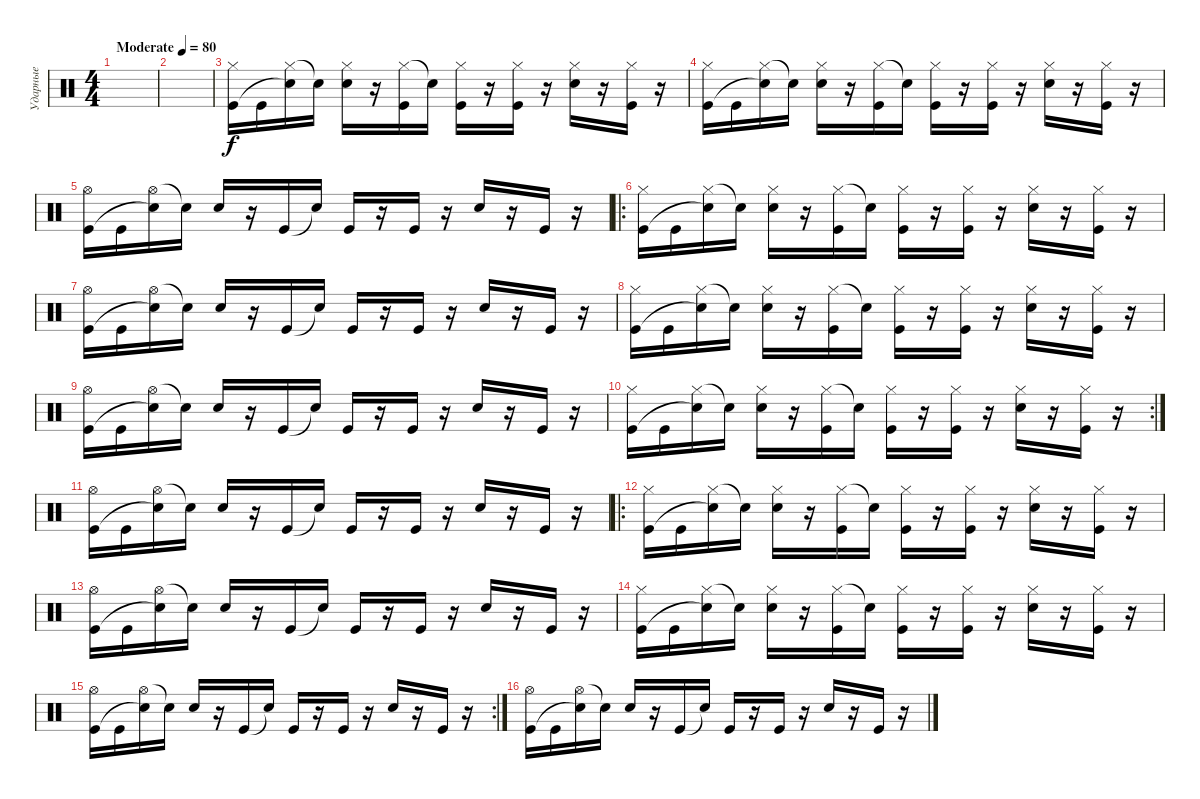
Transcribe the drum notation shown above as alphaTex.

\track ("Ударные" "Ударные") {instrument percussion}
\staff {score}
\articulation defaults
\ts (4 4)
\tempo (80 "Moderate")
\clef neutral
\ks c
|
|
("Hi-Hat (closed)" "Kick (hit)").16 "Kick (hit)".16 ("Hi-Hat (closed)" "Snare (hit)"{t}).16 "Electric Snare (hit)"{t}.16 ("Hi-Hat (closed)" "Electric Snare (hit)").16 r.16 ("Hi-Hat (closed)" "Kick (hit)").16 "Snare (hit)"{t}.16 ("Hi-Hat (closed)" "Kick (hit)").16 r.16 ("Hi-Hat (closed)" "Kick (hit)").16 r.16 ("Hi-Hat (closed)" "Electric Snare (hit)").16 r.16 ("Hi-Hat (closed)" "Kick (hit)").16 r.16 |
("Hi-Hat (closed)" "Kick (hit)").16 "Kick (hit)".16 ("Hi-Hat (closed)" "Snare (hit)"{t}).16 "Electric Snare (hit)"{t}.16 ("Hi-Hat (closed)" "Electric Snare (hit)").16 r.16 ("Hi-Hat (closed)" "Kick (hit)").16 "Snare (hit)"{t}.16 ("Hi-Hat (closed)" "Kick (hit)").16 r.16 ("Hi-Hat (closed)" "Kick (hit)").16 r.16 ("Hi-Hat (closed)" "Electric Snare (hit)").16 r.16 ("Hi-Hat (closed)" "Kick (hit)").16 r.16 |
("Hi-Hat (open)" "Kick (hit)").16 "Kick (hit)".16 ("Hi-Hat (open)" "Snare (hit)"{t}).16 "Electric Snare (hit)"{t}.16 "Electric Snare (hit)".16 r.16 "Kick (hit)".16 "Snare (hit)"{t}.16 "Kick (hit)".16 r.16 "Kick (hit)".16 r.16 "Electric Snare (hit)".16 r.16 "Kick (hit)".16 r.16 |
\ro
("Hi-Hat (closed)" "Kick (hit)").16 "Kick (hit)".16 ("Hi-Hat (closed)" "Snare (hit)"{t}).16 "Electric Snare (hit)"{t}.16 ("Hi-Hat (closed)" "Electric Snare (hit)").16 r.16 ("Hi-Hat (closed)" "Kick (hit)").16 "Snare (hit)"{t}.16 ("Hi-Hat (closed)" "Kick (hit)").16 r.16 ("Hi-Hat (closed)" "Kick (hit)").16 r.16 ("Hi-Hat (closed)" "Electric Snare (hit)").16 r.16 ("Hi-Hat (closed)" "Kick (hit)").16 r.16 |
("Hi-Hat (open)" "Kick (hit)").16 "Kick (hit)".16 ("Hi-Hat (open)" "Snare (hit)"{t}).16 "Electric Snare (hit)"{t}.16 "Electric Snare (hit)".16 r.16 "Kick (hit)".16 "Snare (hit)"{t}.16 "Kick (hit)".16 r.16 "Kick (hit)".16 r.16 "Electric Snare (hit)".16 r.16 "Kick (hit)".16 r.16 |
("Hi-Hat (closed)" "Kick (hit)").16 "Kick (hit)".16 ("Hi-Hat (closed)" "Snare (hit)"{t}).16 "Electric Snare (hit)"{t}.16 ("Hi-Hat (closed)" "Electric Snare (hit)").16 r.16 ("Hi-Hat (closed)" "Kick (hit)").16 "Snare (hit)"{t}.16 ("Hi-Hat (closed)" "Kick (hit)").16 r.16 ("Hi-Hat (closed)" "Kick (hit)").16 r.16 ("Hi-Hat (closed)" "Electric Snare (hit)").16 r.16 ("Hi-Hat (closed)" "Kick (hit)").16 r.16 |
("Hi-Hat (open)" "Kick (hit)").16 "Kick (hit)".16 ("Hi-Hat (open)" "Snare (hit)"{t}).16 "Electric Snare (hit)"{t}.16 "Electric Snare (hit)".16 r.16 "Kick (hit)".16 "Snare (hit)"{t}.16 "Kick (hit)".16 r.16 "Kick (hit)".16 r.16 "Electric Snare (hit)".16 r.16 "Kick (hit)".16 r.16 |
\rc 2
("Hi-Hat (closed)" "Kick (hit)").16 "Kick (hit)".16 ("Hi-Hat (closed)" "Snare (hit)"{t}).16 "Electric Snare (hit)"{t}.16 ("Hi-Hat (closed)" "Electric Snare (hit)").16 r.16 ("Hi-Hat (closed)" "Kick (hit)").16 "Snare (hit)"{t}.16 ("Hi-Hat (closed)" "Kick (hit)").16 r.16 ("Hi-Hat (closed)" "Kick (hit)").16 r.16 ("Hi-Hat (closed)" "Electric Snare (hit)").16 r.16 ("Hi-Hat (closed)" "Kick (hit)").16 r.16 |
("Hi-Hat (open)" "Kick (hit)").16 "Kick (hit)".16 ("Hi-Hat (open)" "Snare (hit)"{t}).16 "Electric Snare (hit)"{t}.16 "Electric Snare (hit)".16 r.16 "Kick (hit)".16 "Snare (hit)"{t}.16 "Kick (hit)".16 r.16 "Kick (hit)".16 r.16 "Electric Snare (hit)".16 r.16 "Kick (hit)".16 r.16 |
\ro
("Hi-Hat (closed)" "Kick (hit)").16 "Kick (hit)".16 ("Hi-Hat (closed)" "Snare (hit)"{t}).16 "Electric Snare (hit)"{t}.16 ("Hi-Hat (closed)" "Electric Snare (hit)").16 r.16 ("Hi-Hat (closed)" "Kick (hit)").16 "Snare (hit)"{t}.16 ("Hi-Hat (closed)" "Kick (hit)").16 r.16 ("Hi-Hat (closed)" "Kick (hit)").16 r.16 ("Hi-Hat (closed)" "Electric Snare (hit)").16 r.16 ("Hi-Hat (closed)" "Kick (hit)").16 r.16 |
("Hi-Hat (open)" "Kick (hit)").16 "Kick (hit)".16 ("Hi-Hat (open)" "Snare (hit)"{t}).16 "Electric Snare (hit)"{t}.16 "Electric Snare (hit)".16 r.16 "Kick (hit)".16 "Snare (hit)"{t}.16 "Kick (hit)".16 r.16 "Kick (hit)".16 r.16 "Electric Snare (hit)".16 r.16 "Kick (hit)".16 r.16 |
("Hi-Hat (closed)" "Kick (hit)").16 "Kick (hit)".16 ("Hi-Hat (closed)" "Snare (hit)"{t}).16 "Electric Snare (hit)"{t}.16 ("Hi-Hat (closed)" "Electric Snare (hit)").16 r.16 ("Hi-Hat (closed)" "Kick (hit)").16 "Snare (hit)"{t}.16 ("Hi-Hat (closed)" "Kick (hit)").16 r.16 ("Hi-Hat (closed)" "Kick (hit)").16 r.16 ("Hi-Hat (closed)" "Electric Snare (hit)").16 r.16 ("Hi-Hat (closed)" "Kick (hit)").16 r.16 |
\rc 2
("Hi-Hat (open)" "Kick (hit)").16 "Kick (hit)".16 ("Hi-Hat (open)" "Snare (hit)"{t}).16 "Electric Snare (hit)"{t}.16 "Electric Snare (hit)".16 r.16 "Kick (hit)".16 "Snare (hit)"{t}.16 "Kick (hit)".16 r.16 "Kick (hit)".16 r.16 "Electric Snare (hit)".16 r.16 "Kick (hit)".16 r.16 |
("Hi-Hat (open)" "Kick (hit)").16 "Kick (hit)".16 ("Hi-Hat (open)" "Snare (hit)"{t}).16 "Electric Snare (hit)"{t}.16 "Electric Snare (hit)".16 r.16 "Kick (hit)".16 "Snare (hit)"{t}.16 "Kick (hit)".16 r.16 "Kick (hit)".16 r.16 "Electric Snare (hit)".16 r.16 "Kick (hit)".16 r.16
